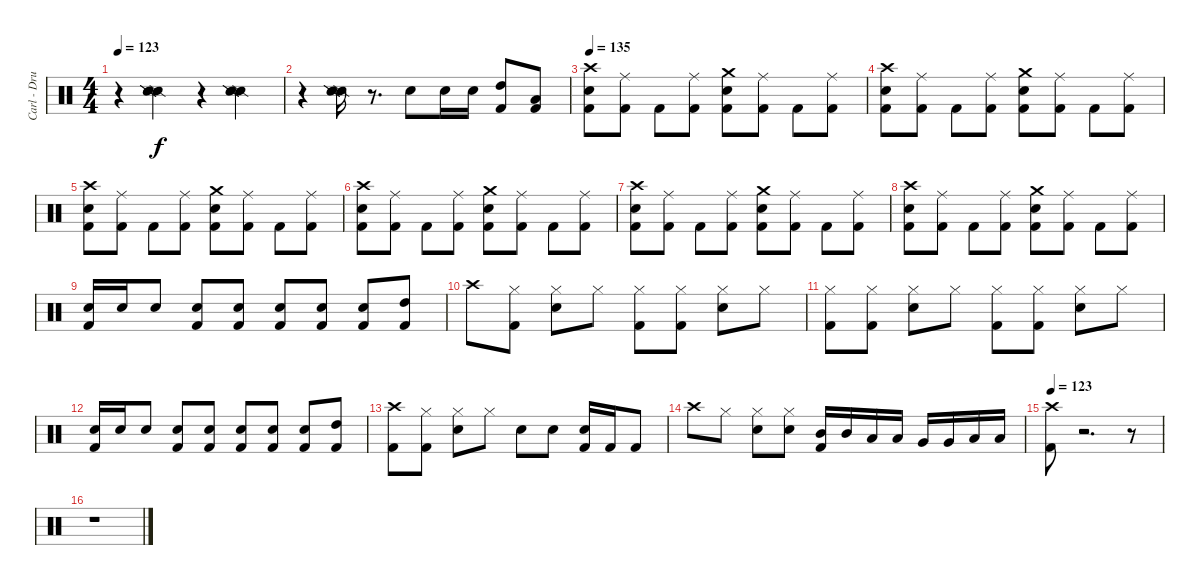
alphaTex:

\track ("Carl - Drums" "Carl - Dru") {instrument percussion}
\staff {score}
\articulation defaults
\ts (4 4)
\tempo 123
\clef neutral
\ks c
r.4{dy f} ("Snare (side stick) 2" "Snare (side stick) 2" "Snare (side stick) 2").4 r.4 ("Snare (side stick) 2" "Snare (side stick) 2" "Snare (side stick) 2").4 |
r.4 ("Snare (side stick) 2" "Snare (side stick) 2" "Snare (side stick) 2").16 r.8{d} "Electric Snare (hit)".8 "Electric Snare (hit)".16 "Electric Snare (hit)".16 ("High Tom (hit)" "Kick (hit) 2").8 ("Low Tom (hit)" "Kick (hit) 2").8 |
\tempo 135
("Crash high (hit)" "Electric Snare (hit)" "Kick (hit) 2").8 ("Ride (middle)" "Kick (hit) 2").8 "Kick (hit) 2".8 ("Ride (middle)" "Kick (hit) 2").8 ("Crash medium (hit)" "Electric Snare (hit)" "Kick (hit) 2").8 ("Ride (middle)" "Kick (hit) 2").8 "Kick (hit) 2".8 ("Ride (middle)" "Kick (hit) 2").8 |
("Crash high (hit)" "Electric Snare (hit)" "Kick (hit) 2").8 ("Ride (middle)" "Kick (hit) 2").8 "Kick (hit) 2".8 ("Ride (middle)" "Kick (hit) 2").8 ("Crash medium (hit)" "Electric Snare (hit)" "Kick (hit) 2").8 ("Ride (middle)" "Kick (hit) 2").8 "Kick (hit) 2".8 ("Ride (middle)" "Kick (hit) 2").8 |
("Crash high (hit)" "Electric Snare (hit)" "Kick (hit) 2").8 ("Ride (middle)" "Kick (hit) 2").8 "Kick (hit) 2".8 ("Ride (middle)" "Kick (hit) 2").8 ("Crash medium (hit)" "Electric Snare (hit)" "Kick (hit) 2").8 ("Ride (middle)" "Kick (hit) 2").8 "Kick (hit) 2".8 ("Ride (middle)" "Kick (hit) 2").8 |
("Crash high (hit)" "Electric Snare (hit)" "Kick (hit) 2").8 ("Ride (middle)" "Kick (hit) 2").8 "Kick (hit) 2".8 ("Ride (middle)" "Kick (hit) 2").8 ("Crash medium (hit)" "Electric Snare (hit)" "Kick (hit) 2").8 ("Ride (middle)" "Kick (hit) 2").8 "Kick (hit) 2".8 ("Ride (middle)" "Kick (hit) 2").8 |
("Crash high (hit)" "Electric Snare (hit)" "Kick (hit) 2").8 ("Ride (middle)" "Kick (hit) 2").8 "Kick (hit) 2".8 ("Ride (middle)" "Kick (hit) 2").8 ("Crash medium (hit)" "Electric Snare (hit)" "Kick (hit) 2").8 ("Ride (middle)" "Kick (hit) 2").8 "Kick (hit) 2".8 ("Ride (middle)" "Kick (hit) 2").8 |
("Crash high (hit)" "Electric Snare (hit)" "Kick (hit) 2").8 ("Ride (middle)" "Kick (hit) 2").8 "Kick (hit) 2".8 ("Ride (middle)" "Kick (hit) 2").8 ("Crash medium (hit)" "Electric Snare (hit)" "Kick (hit) 2").8 ("Ride (middle)" "Kick (hit) 2").8 "Kick (hit) 2".8 ("Ride (middle)" "Kick (hit) 2").8 |
("Electric Snare (hit)" "Kick (hit) 2").16 "Electric Snare (hit)".16 "Electric Snare (hit)".8 ("Electric Snare (hit)" "Kick (hit) 2").8 ("Electric Snare (hit)" "Kick (hit) 2").8 ("Electric Snare (hit)" "Kick (hit) 2").8 ("Electric Snare (hit)" "Kick (hit) 2").8 ("Electric Snare (hit)" "Kick (hit) 2").8 ("High Tom (hit)" "Kick (hit) 2").8 |
"Crash high (hit)".8 ("Hi-Hat (closed)" "Kick (hit) 2").8 ("Hi-Hat (closed)" "Electric Snare (hit)").8 "Hi-Hat (closed)".8 ("Hi-Hat (closed)" "Kick (hit) 2").8 ("Hi-Hat (closed)" "Kick (hit) 2").8 ("Hi-Hat (closed)" "Electric Snare (hit)").8 "Hi-Hat (closed)".8 |
("Hi-Hat (closed)" "Kick (hit) 2").8 ("Hi-Hat (closed)" "Kick (hit) 2").8 ("Hi-Hat (closed)" "Electric Snare (hit)").8 "Hi-Hat (closed)".8 ("Hi-Hat (closed)" "Kick (hit) 2").8 ("Hi-Hat (closed)" "Kick (hit) 2").8 ("Hi-Hat (closed)" "Electric Snare (hit)").8 "Hi-Hat (closed)".8 |
("Electric Snare (hit)" "Kick (hit) 2").16 "Electric Snare (hit)".16 "Electric Snare (hit)".8 ("Electric Snare (hit)" "Kick (hit) 2").8 ("Electric Snare (hit)" "Kick (hit) 2").8 ("Electric Snare (hit)" "Kick (hit) 2").8 ("Electric Snare (hit)" "Kick (hit) 2").8 ("Electric Snare (hit)" "Kick (hit) 2").8 ("High Tom (hit)" "Kick (hit) 2").8 |
("Crash high (hit)" "Kick (hit) 2").8 ("Hi-Hat (closed)" "Kick (hit) 2").8 ("Hi-Hat (closed)" "Electric Snare (hit)").8 "Hi-Hat (closed)".8 "Electric Snare (hit)".8 "Electric Snare (hit)".8 ("Electric Snare (hit)" "Kick (hit) 2").16 "Kick (hit) 2".16 "Kick (hit) 2".8 |
"Crash high (hit)".8 "Hi-Hat (closed)".8 ("Hi-Hat (closed)" "Electric Snare (hit)").8 ("Hi-Hat (closed)" "Electric Snare (hit)").8 ("Kick (hit) 2" "Mid Tom (hit)").16 "Mid Tom (hit)".16 "Low Tom (hit)".16 "Low Tom (hit)".16 "Very Low Tom (hit)".16 "Very Low Tom (hit)".16 "Low Floor Tom (hit)".16 "Low Floor Tom (hit)".16 |
\tempo 123
("Crash high (hit)" "Kick (hit) 2").8 r.2{d} r.8 |
r.1
